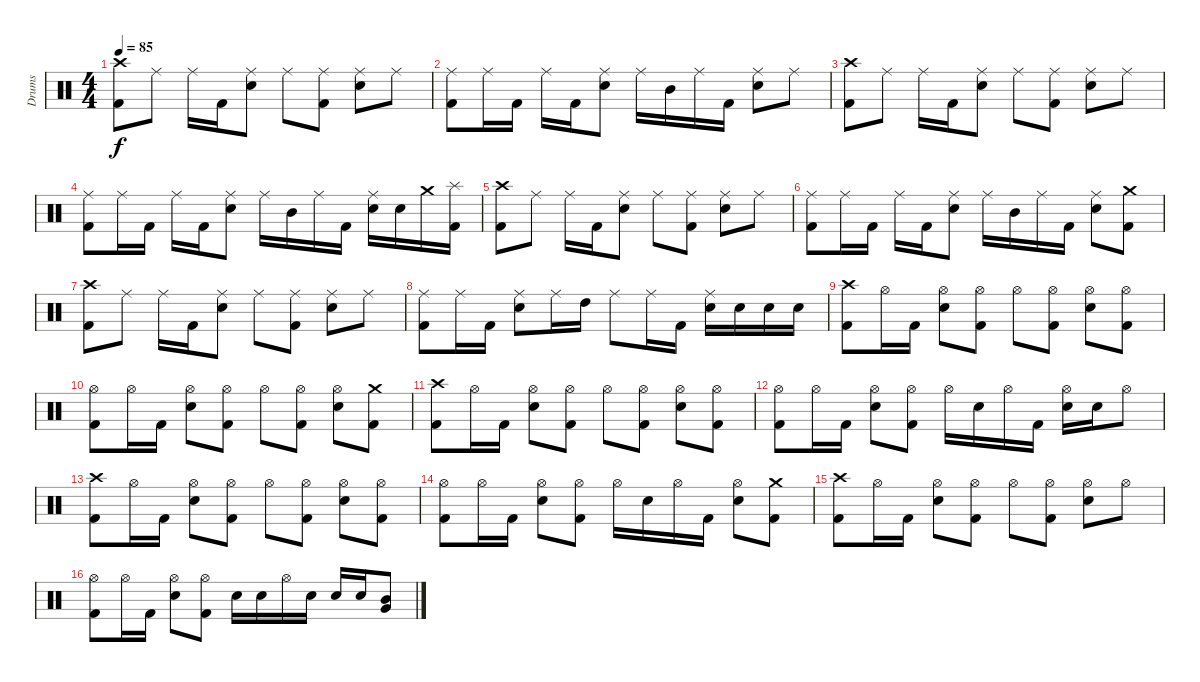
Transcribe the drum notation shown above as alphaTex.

\track ("Drums" "Drums") {instrument percussion}
\staff {score}
\articulation defaults
\ts (4 4)
\tempo 85
\clef neutral
\ks c
("Crash high (hit)" "Kick (hit) 2").8{dy f} "Ride (middle)".8 "Ride (middle)".16 "Kick (hit) 2".16 ("Ride (middle)" "Electric Snare (hit)").8 "Ride (middle)".8 ("Ride (middle)" "Kick (hit) 2").8 ("Ride (middle)" "Electric Snare (hit)").8 "Ride (middle)".8 |
("Ride (middle)" "Kick (hit) 2").8 "Ride (middle)".16 "Kick (hit) 2".16 "Ride (middle)".16 "Kick (hit) 2".16 ("Ride (middle)" "Electric Snare (hit)").8 "Ride (middle)".16 "Mid Tom (hit)".16 "Ride (middle)".16 "Kick (hit) 2".16 ("Ride (middle)" "Electric Snare (hit)").8 "Ride (middle)".8 |
("Crash high (hit)" "Kick (hit) 2").8 "Ride (middle)".8 "Ride (middle)".16 "Kick (hit) 2".16 ("Ride (middle)" "Electric Snare (hit)").8 "Ride (middle)".8 ("Ride (middle)" "Kick (hit) 2").8 ("Ride (middle)" "Electric Snare (hit)").8 "Ride (middle)".8 |
("Ride (middle)" "Kick (hit) 2").8 "Ride (middle)".16 "Kick (hit) 2".16 "Ride (middle)".16 "Kick (hit) 2".16 ("Ride (middle)" "Electric Snare (hit)").8 "Ride (middle)".16 "Mid Tom (hit)".16 "Ride (middle)".16 "Kick (hit) 2".16 ("Ride (middle)" "Electric Snare (hit)").16 "Electric Snare (hit)".16 "Crash medium (hit)".16 ("Splash (hit)" "Kick (hit) 2").16 |
("Crash high (hit)" "Kick (hit) 2").8 "Ride (middle)".8 "Ride (middle)".16 "Kick (hit) 2".16 ("Ride (middle)" "Electric Snare (hit)").8 "Ride (middle)".8 ("Ride (middle)" "Kick (hit) 2").8 ("Ride (middle)" "Electric Snare (hit)").8 "Ride (middle)".8 |
("Ride (middle)" "Kick (hit) 2").8 "Ride (middle)".16 "Kick (hit) 2".16 "Ride (middle)".16 "Kick (hit) 2".16 ("Ride (middle)" "Electric Snare (hit)").8 "Ride (middle)".16 "Mid Tom (hit)".16 "Ride (middle)".16 "Kick (hit) 2".16 ("Ride (middle)" "Electric Snare (hit)").8 ("Crash medium (hit)" "Kick (hit) 2").8 |
("Crash high (hit)" "Kick (hit) 2").8 "Ride (middle)".8 "Ride (middle)".16 "Kick (hit) 2".16 ("Ride (middle)" "Electric Snare (hit)").8 "Ride (middle)".8 ("Ride (middle)" "Kick (hit) 2").8 ("Ride (middle)" "Electric Snare (hit)").8 "Ride (middle)".8 |
("Ride (middle)" "Kick (hit) 2").8 "Ride (middle)".16 "Kick (hit) 2".16 ("Ride (middle)" "Electric Snare (hit)").8 "Ride (middle)".16 "High Tom (hit)".16 "Ride (middle)".8 "Ride (middle)".16 "Kick (hit) 2".16 ("Ride (middle)" "Electric Snare (hit)").16 "Electric Snare (hit)".16 "Electric Snare (hit)".16 "Electric Snare (hit)".16 |
("Crash high (hit)" "Kick (hit) 2").8 "Hi-Hat (open)".16 "Kick (hit) 2".16 ("Hi-Hat (open)" "Electric Snare (hit)").8 ("Hi-Hat (open)" "Kick (hit) 2").8 "Hi-Hat (open)".8 ("Hi-Hat (open)" "Kick (hit) 2").8 ("Hi-Hat (open)" "Electric Snare (hit)").8 ("Hi-Hat (open)" "Kick (hit) 2").8 |
("Hi-Hat (open)" "Kick (hit) 2").8 "Hi-Hat (open)".16 "Kick (hit) 2".16 ("Hi-Hat (open)" "Electric Snare (hit)").8 ("Hi-Hat (open)" "Kick (hit) 2").8 "Hi-Hat (open)".8 ("Hi-Hat (open)" "Kick (hit) 2").8 ("Hi-Hat (open)" "Electric Snare (hit)").8 ("Crash medium (hit)" "Kick (hit) 2").8 |
("Crash high (hit)" "Kick (hit) 2").8 "Hi-Hat (open)".16 "Kick (hit) 2".16 ("Hi-Hat (open)" "Electric Snare (hit)").8 ("Hi-Hat (open)" "Kick (hit) 2").8 "Hi-Hat (open)".8 ("Hi-Hat (open)" "Kick (hit) 2").8 ("Hi-Hat (open)" "Electric Snare (hit)").8 ("Hi-Hat (open)" "Kick (hit) 2").8 |
("Hi-Hat (open)" "Kick (hit) 2").8 "Hi-Hat (open)".16 "Kick (hit) 2".16 ("Hi-Hat (open)" "Electric Snare (hit)").8 ("Hi-Hat (open)" "Kick (hit) 2").8 "Hi-Hat (open)".16 "Electric Snare (hit)".16 "Hi-Hat (open)".16 "Kick (hit) 2".16 ("Hi-Hat (open)" "Electric Snare (hit)").16 "Electric Snare (hit)".16 "Hi-Hat (open)".8 |
("Crash high (hit)" "Kick (hit) 2").8 "Hi-Hat (open)".16 "Kick (hit) 2".16 ("Hi-Hat (open)" "Electric Snare (hit)").8 ("Hi-Hat (open)" "Kick (hit) 2").8 "Hi-Hat (open)".8 ("Hi-Hat (open)" "Kick (hit) 2").8 ("Hi-Hat (open)" "Electric Snare (hit)").8 ("Hi-Hat (open)" "Kick (hit) 2").8 |
("Hi-Hat (open)" "Kick (hit) 2").8 "Hi-Hat (open)".16 "Kick (hit) 2".16 ("Hi-Hat (open)" "Electric Snare (hit)").8 ("Hi-Hat (open)" "Kick (hit) 2").8 "Hi-Hat (open)".16 "Electric Snare (hit)".16 "Hi-Hat (open)".16 "Kick (hit) 2".16 ("Hi-Hat (open)" "Electric Snare (hit)").8 ("Crash medium (hit)" "Kick (hit) 2").8 |
("Crash high (hit)" "Kick (hit) 2").8 "Hi-Hat (open)".16 "Kick (hit) 2".16 ("Hi-Hat (open)" "Electric Snare (hit)").8 ("Hi-Hat (open)" "Kick (hit) 2").8 "Hi-Hat (open)".8 ("Hi-Hat (open)" "Kick (hit) 2").8 ("Hi-Hat (open)" "Electric Snare (hit)").8 "Hi-Hat (open)".8 |
("Hi-Hat (open)" "Kick (hit) 2").8 "Hi-Hat (open)".16 "Kick (hit) 2".16 ("Hi-Hat (open)" "Electric Snare (hit)").8 ("Hi-Hat (open)" "Kick (hit) 2").8 "Electric Snare (hit)".16 "Electric Snare (hit)".16 "Hi-Hat (open)".16 "Electric Snare (hit)".16 "Electric Snare (hit)".16 "Electric Snare (hit)".16 ("Mid Tom (hit)" "Very Low Tom (hit)").8
